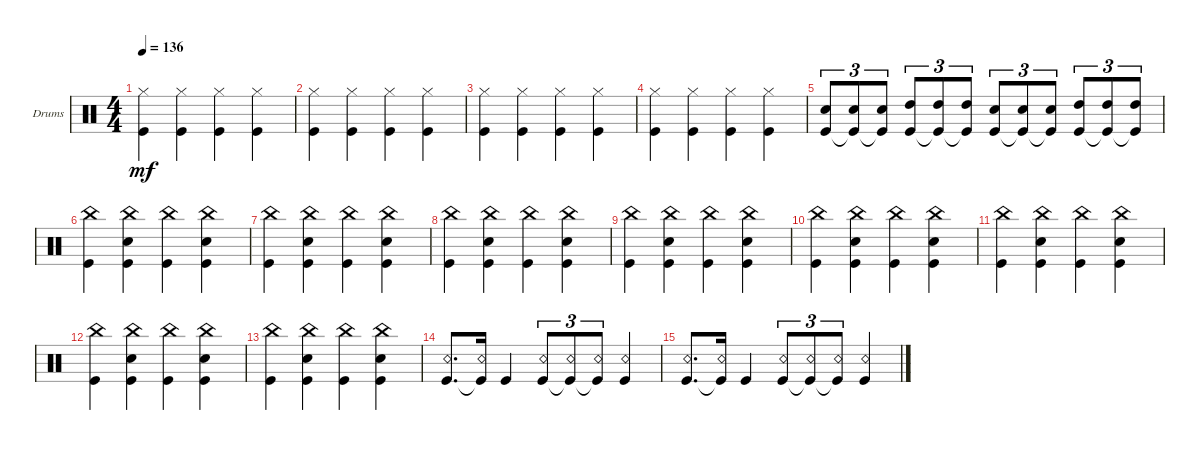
\defaultSystemsLayout 4
\bracketExtendMode groupsimilarinstruments
\firstSystemTrackNameOrientation horizontal
\otherSystemsTrackNameOrientation horizontal
\track ("Drumkit" "Drums") {instrument percussion}
\staff {score}
\articulation defaults
\ts (4 4)
\tempo 136
\clef neutral
\ks c
("Hi-Hat (closed)" "Kick (hit)").4{dy mf} ("Hi-Hat (closed)" "Kick (hit)").4 ("Hi-Hat (closed)" "Kick (hit)").4 ("Hi-Hat (closed)" "Kick (hit)").4 |
("Hi-Hat (closed)" "Kick (hit)").4 ("Hi-Hat (closed)" "Kick (hit)").4 ("Hi-Hat (closed)" "Kick (hit)").4 ("Hi-Hat (closed)" "Kick (hit)").4 |
("Hi-Hat (closed)" "Kick (hit)").4 ("Hi-Hat (closed)" "Kick (hit)").4 ("Hi-Hat (closed)" "Kick (hit)").4 ("Hi-Hat (closed)" "Kick (hit)").4 |
("Hi-Hat (closed)" "Kick (hit)").4 ("Hi-Hat (closed)" "Kick (hit)").4 ("Hi-Hat (closed)" "Kick (hit)").4 ("Hi-Hat (closed)" "Kick (hit)").4 |
("Snare (hit) 2" "Kick (hit)").8{tu (3 2)} ("Snare (hit) 2" "Kick (hit)"{t}).8{tu (3 2)} ("Snare (hit) 2" "Kick (hit)"{t}).8{tu (3 2)} ("High Tom (hit)" "Kick (hit)").8{tu (3 2)} ("High Tom (hit)" "Kick (hit)"{t}).8{tu (3 2)} ("High Tom (hit)" "Kick (hit)"{t}).8{tu (3 2)} ("Snare (hit) 2" "Kick (hit)").8{tu (3 2)} ("Snare (hit) 2" "Kick (hit)"{t}).8{tu (3 2)} ("Snare (hit) 2" "Kick (hit)"{t}).8{tu (3 2)} ("High Tom (hit)" "Kick (hit)").8{tu (3 2)} ("High Tom (hit)" "Kick (hit)"{t}).8{tu (3 2)} ("High Tom (hit)" "Kick (hit)"{t}).8{tu (3 2)} |
("Kick (hit)" "China (hit)").4 ("Kick (hit)" "Snare (hit) 2" "China (hit)").4 ("Kick (hit)" "China (hit)").4 ("Kick (hit)" "Snare (hit) 2" "China (hit)").4 |
("Kick (hit)" "China (hit)").4 ("Kick (hit)" "Snare (hit) 2" "China (hit)").4 ("Kick (hit)" "China (hit)").4 ("Kick (hit)" "Snare (hit) 2" "China (hit)").4 |
("Kick (hit)" "China (hit)").4 ("Kick (hit)" "Snare (hit) 2" "China (hit)").4 ("Kick (hit)" "China (hit)").4 ("Kick (hit)" "Snare (hit) 2" "China (hit)").4 |
("Kick (hit)" "China (hit)").4 ("Kick (hit)" "Snare (hit) 2" "China (hit)").4 ("Kick (hit)" "China (hit)").4 ("Kick (hit)" "Snare (hit) 2" "China (hit)").4 |
("Kick (hit)" "China (hit)").4 ("Kick (hit)" "Snare (hit) 2" "China (hit)").4 ("Kick (hit)" "China (hit)").4 ("Kick (hit)" "Snare (hit) 2" "China (hit)").4 |
("Kick (hit)" "China (hit)").4 ("Kick (hit)" "Snare (hit) 2" "China (hit)").4 ("Kick (hit)" "China (hit)").4 ("Kick (hit)" "Snare (hit) 2" "China (hit)").4 |
("Kick (hit)" "China (hit)").4 ("Kick (hit)" "Snare (hit) 2" "China (hit)").4 ("Kick (hit)" "China (hit)").4 ("Kick (hit)" "Snare (hit) 2" "China (hit)").4 |
("Kick (hit)" "China (hit)").4 ("Kick (hit)" "Snare (hit) 2" "China (hit)").4 ("Kick (hit)" "China (hit)").4 ("Kick (hit)" "Snare (hit) 2" "China (hit)").4 |
("Kick (hit)" "Snare (rim shot)").8{d} ("Kick (hit)"{t} "Snare (rim shot)").16 "Kick (hit)".4 ("Kick (hit)" "Snare (rim shot)").8{tu (3 2)} ("Kick (hit)"{t} "Snare (rim shot)").8{tu (3 2)} ("Kick (hit)"{t} "Snare (rim shot)").8{tu (3 2)} ("Kick (hit)" "Snare (rim shot)").4 |
("Kick (hit)" "Snare (rim shot)").8{d} ("Kick (hit)"{t} "Snare (rim shot)").16 "Kick (hit)".4 ("Kick (hit)" "Snare (rim shot)").8{tu (3 2)} ("Kick (hit)"{t} "Snare (rim shot)").8{tu (3 2)} ("Kick (hit)"{t} "Snare (rim shot)").8{tu (3 2)} ("Kick (hit)" "Snare (rim shot)").4
